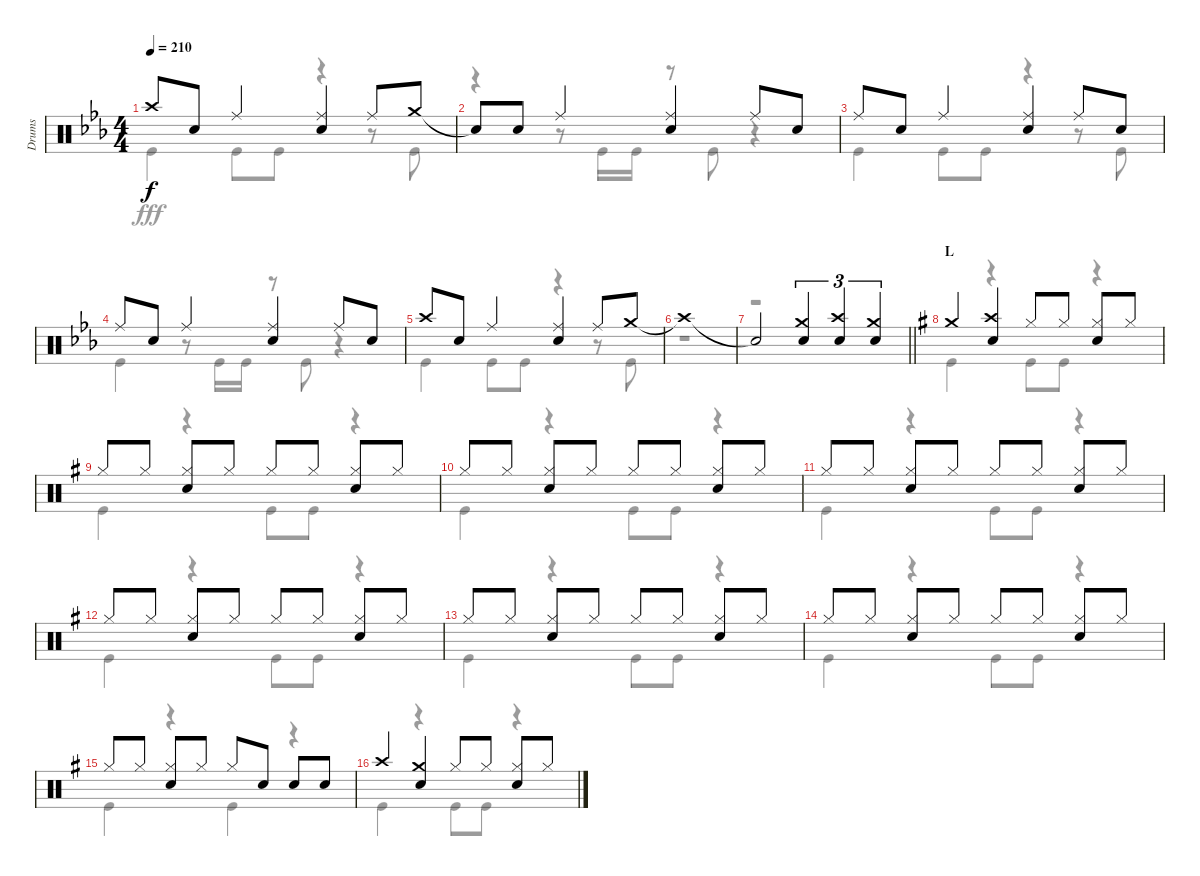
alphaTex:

\track ("Drums" "Drums") {instrument percussion}
\staff {score}
\articulation defaults
\voice
\ts (4 4)
\tempo 210
\clef neutral
\ks eb "Crash high (hit)".8{dy f} "Snare (hit) 2".8 "Ride (middle)".4
("Ride (middle)" "Snare (hit) 2").4 "Ride (middle)".8 "Crash medium (hit)".8 |
"Snare (hit)"{t}.8 "Snare (hit) 2".8 "Ride (middle)".4 ("Ride (middle)" "Snare (hit) 2").4 "Ride (middle)".8 "Snare (hit) 2".8 |
"Ride (middle)".8 "Snare (hit) 2".8 "Ride (middle)".4 ("Ride (middle)" "Snare (hit) 2").4 "Ride (middle)".8 "Snare (hit) 2".8 |
"Ride (middle)".8 "Snare (hit) 2".8 "Ride (middle)".4 ("Ride (middle)" "Snare (hit) 2").4 "Ride (middle)".8 "Snare (hit) 2".8 |
"Crash high (hit)".8 "Snare (hit) 2".8 "Ride (middle)".4 ("Ride (middle)" "Snare (hit) 2").4 "Ride (middle)".8 "Crash medium (hit)".8 |
"Crash high (hit)"{t}.1 |
\barLineRight lightlight "Snare (hit)"{t}.2
("Crash medium (hit)" "Snare (hit) 2").4{tu (3 2)} ("Crash high (hit)" "Snare (hit) 2").4{tu (3 2)} ("Crash medium (hit)" "Snare (hit) 2").4{tu (3 2)} |
\section ("" "L")
\ks g "Crash medium (hit)".4
("Crash high (hit)" "Snare (hit) 2").4 "Hi-Hat (closed)".8 "Hi-Hat (closed)".8 ("Hi-Hat (closed)" "Snare (hit) 2").8 "Hi-Hat (closed)".8 |
"Hi-Hat (closed)".8 "Hi-Hat (closed)".8 ("Hi-Hat (closed)" "Snare (hit) 2").8 "Hi-Hat (closed)".8 "Hi-Hat (closed)".8 "Hi-Hat (closed)".8 ("Hi-Hat (closed)" "Snare (hit) 2").8 "Hi-Hat (closed)".8 |
"Hi-Hat (closed)".8 "Hi-Hat (closed)".8 ("Hi-Hat (closed)" "Snare (hit) 2").8 "Hi-Hat (closed)".8 "Hi-Hat (closed)".8 "Hi-Hat (closed)".8 ("Hi-Hat (closed)" "Snare (hit) 2").8 "Hi-Hat (closed)".8 |
"Hi-Hat (closed)".8 "Hi-Hat (closed)".8 ("Hi-Hat (closed)" "Snare (hit) 2").8 "Hi-Hat (closed)".8 "Hi-Hat (closed)".8 "Hi-Hat (closed)".8 ("Hi-Hat (closed)" "Snare (hit) 2").8 "Hi-Hat (closed)".8 |
"Hi-Hat (closed)".8 "Hi-Hat (closed)".8 ("Hi-Hat (closed)" "Snare (hit) 2").8 "Hi-Hat (closed)".8 "Hi-Hat (closed)".8 "Hi-Hat (closed)".8 ("Hi-Hat (closed)" "Snare (hit) 2").8 "Hi-Hat (closed)".8 |
"Hi-Hat (closed)".8 "Hi-Hat (closed)".8 ("Hi-Hat (closed)" "Snare (hit) 2").8 "Hi-Hat (closed)".8 "Hi-Hat (closed)".8 "Hi-Hat (closed)".8 ("Hi-Hat (closed)" "Snare (hit) 2").8 "Hi-Hat (closed)".8 |
"Hi-Hat (closed)".8 "Hi-Hat (closed)".8 ("Hi-Hat (closed)" "Snare (hit) 2").8 "Hi-Hat (closed)".8 "Hi-Hat (closed)".8 "Hi-Hat (closed)".8 ("Hi-Hat (closed)" "Snare (hit) 2").8 "Hi-Hat (closed)".8 |
"Hi-Hat (closed)".8 "Hi-Hat (closed)".8 ("Hi-Hat (closed)" "Snare (hit) 2").8 "Hi-Hat (closed)".8 "Hi-Hat (closed)".8 "Snare (hit) 2".8 "Snare (hit) 2".8 "Snare (hit) 2".8 |
"Crash high (hit)".4 ("Crash medium (hit)" "Snare (hit) 2").4 "Hi-Hat (closed)".8 "Hi-Hat (closed)".8 ("Hi-Hat (closed)" "Snare (hit) 2").8 "Hi-Hat (closed)".8
\voice
\clef neutral
\ottava regular
\simile none
\ks eb "Kick (hit)".4{dy fff} "Kick (hit)".8 "Kick (hit)".8
r.4 r.8 "Kick (hit)".8 |
r.4 r.8 "Kick (hit)".16 "Kick (hit)".16 r.8 "Kick (hit)".8 r.4 |
"Kick (hit)".4 "Kick (hit)".8 "Kick (hit)".8 r.4 r.8 "Kick (hit)".8 |
"Kick (hit)".4 r.8 "Kick (hit)".16 "Kick (hit)".16 r.8 "Kick (hit)".8 r.4 |
"Kick (hit)".4 "Kick (hit)".8 "Kick (hit)".8 r.4 r.8 "Kick (hit)".8 |
r.1 |
\barLineRight lightlight
r.1 |
\ks g "Kick (hit)".4
r.4 "Kick (hit)".8 "Kick (hit)".8 r.4 |
"Kick (hit)".4 r.4 "Kick (hit)".8 "Kick (hit)".8 r.4 |
"Kick (hit)".4 r.4 "Kick (hit)".8 "Kick (hit)".8 r.4 |
"Kick (hit)".4 r.4 "Kick (hit)".8 "Kick (hit)".8 r.4 |
"Kick (hit)".4 r.4 "Kick (hit)".8 "Kick (hit)".8 r.4 |
"Kick (hit)".4 r.4 "Kick (hit)".8 "Kick (hit)".8 r.4 |
"Kick (hit)".4 r.4 "Kick (hit)".8 "Kick (hit)".8 r.4 |
"Kick (hit)".4 r.4 "Kick (hit)".4 r.4 |
"Kick (hit)".4 r.4 "Kick (hit)".8 "Kick (hit)".8 r.4
